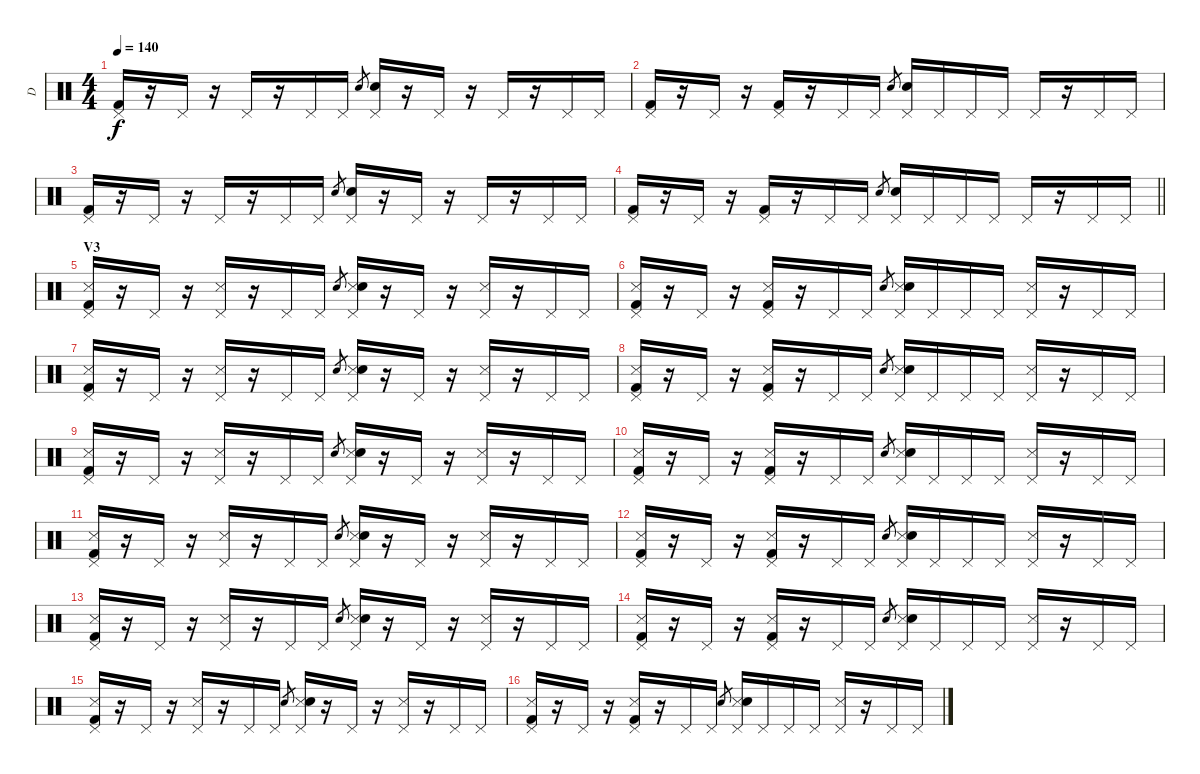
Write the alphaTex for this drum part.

\track ("D" "D") {instrument percussion}
\staff {score}
\articulation defaults
\ts (4 4)
\tempo 140
\clef neutral
\ks c
("Kick (hit) 2" "Pedal Hi-Hat (hit)").16{dy f} r.16 "Pedal Hi-Hat (hit)".16 r.16 "Pedal Hi-Hat (hit)".16 r.16 "Pedal Hi-Hat (hit)".16 "Pedal Hi-Hat (hit)".16 "Electric Snare (hit)".8{gr} ("Electric Snare (hit)" "Pedal Hi-Hat (hit)").16 r.16 "Pedal Hi-Hat (hit)".16 r.16 "Pedal Hi-Hat (hit)".16 r.16 "Pedal Hi-Hat (hit)".16 "Pedal Hi-Hat (hit)".16 |
("Kick (hit) 2" "Pedal Hi-Hat (hit)").16 r.16 "Pedal Hi-Hat (hit)".16 r.16 ("Kick (hit) 2" "Pedal Hi-Hat (hit)").16 r.16 "Pedal Hi-Hat (hit)".16 "Pedal Hi-Hat (hit)".16 "Electric Snare (hit)".8{gr} ("Electric Snare (hit)" "Pedal Hi-Hat (hit)").16 "Pedal Hi-Hat (hit)".16 "Pedal Hi-Hat (hit)".16 "Pedal Hi-Hat (hit)".16 "Pedal Hi-Hat (hit)".16 r.16 "Pedal Hi-Hat (hit)".16 "Pedal Hi-Hat (hit)".16 |
("Kick (hit) 2" "Pedal Hi-Hat (hit)").16 r.16 "Pedal Hi-Hat (hit)".16 r.16 "Pedal Hi-Hat (hit)".16 r.16 "Pedal Hi-Hat (hit)".16 "Pedal Hi-Hat (hit)".16 "Electric Snare (hit)".8{gr} ("Electric Snare (hit)" "Pedal Hi-Hat (hit)").16 r.16 "Pedal Hi-Hat (hit)".16 r.16 "Pedal Hi-Hat (hit)".16 r.16 "Pedal Hi-Hat (hit)".16 "Pedal Hi-Hat (hit)".16 |
\barLineRight lightlight
("Kick (hit) 2" "Pedal Hi-Hat (hit)").16 r.16 "Pedal Hi-Hat (hit)".16 r.16 ("Kick (hit) 2" "Pedal Hi-Hat (hit)").16 r.16 "Pedal Hi-Hat (hit)".16 "Pedal Hi-Hat (hit)".16 "Electric Snare (hit)".8{gr} ("Electric Snare (hit)" "Pedal Hi-Hat (hit)").16 "Pedal Hi-Hat (hit)".16 "Pedal Hi-Hat (hit)".16 "Pedal Hi-Hat (hit)".16 "Pedal Hi-Hat (hit)".16 r.16 "Pedal Hi-Hat (hit)".16 "Pedal Hi-Hat (hit)".16 |
\section ("" "V3")
("Metronome (hit)" "Kick (hit) 2" "Pedal Hi-Hat (hit)").16 r.16 "Pedal Hi-Hat (hit)".16 r.16 ("Metronome (hit)" "Pedal Hi-Hat (hit)").16 r.16 "Pedal Hi-Hat (hit)".16 "Pedal Hi-Hat (hit)".16 "Electric Snare (hit)".8{gr} ("Metronome (hit)" "Electric Snare (hit)" "Pedal Hi-Hat (hit)").16 r.16 "Pedal Hi-Hat (hit)".16 r.16 ("Metronome (hit)" "Pedal Hi-Hat (hit)").16 r.16 "Pedal Hi-Hat (hit)".16 "Pedal Hi-Hat (hit)".16 |
("Metronome (hit)" "Kick (hit) 2" "Pedal Hi-Hat (hit)").16 r.16 "Pedal Hi-Hat (hit)".16 r.16 ("Metronome (hit)" "Kick (hit) 2" "Pedal Hi-Hat (hit)").16 r.16 "Pedal Hi-Hat (hit)".16 "Pedal Hi-Hat (hit)".16 "Electric Snare (hit)".8{gr} ("Metronome (hit)" "Electric Snare (hit)" "Pedal Hi-Hat (hit)").16 "Pedal Hi-Hat (hit)".16 "Pedal Hi-Hat (hit)".16 "Pedal Hi-Hat (hit)".16 ("Metronome (hit)" "Pedal Hi-Hat (hit)").16 r.16 "Pedal Hi-Hat (hit)".16 "Pedal Hi-Hat (hit)".16 |
("Metronome (hit)" "Kick (hit) 2" "Pedal Hi-Hat (hit)").16 r.16 "Pedal Hi-Hat (hit)".16 r.16 ("Metronome (hit)" "Pedal Hi-Hat (hit)").16 r.16 "Pedal Hi-Hat (hit)".16 "Pedal Hi-Hat (hit)".16 "Electric Snare (hit)".8{gr} ("Metronome (hit)" "Electric Snare (hit)" "Pedal Hi-Hat (hit)").16 r.16 "Pedal Hi-Hat (hit)".16 r.16 ("Metronome (hit)" "Pedal Hi-Hat (hit)").16 r.16 "Pedal Hi-Hat (hit)".16 "Pedal Hi-Hat (hit)".16 |
("Metronome (hit)" "Kick (hit) 2" "Pedal Hi-Hat (hit)").16 r.16 "Pedal Hi-Hat (hit)".16 r.16 ("Metronome (hit)" "Kick (hit) 2" "Pedal Hi-Hat (hit)").16 r.16 "Pedal Hi-Hat (hit)".16 "Pedal Hi-Hat (hit)".16 "Electric Snare (hit)".8{gr} ("Metronome (hit)" "Electric Snare (hit)" "Pedal Hi-Hat (hit)").16 "Pedal Hi-Hat (hit)".16 "Pedal Hi-Hat (hit)".16 "Pedal Hi-Hat (hit)".16 ("Metronome (hit)" "Pedal Hi-Hat (hit)").16 r.16 "Pedal Hi-Hat (hit)".16 "Pedal Hi-Hat (hit)".16 |
("Metronome (hit)" "Kick (hit) 2" "Pedal Hi-Hat (hit)").16 r.16 "Pedal Hi-Hat (hit)".16 r.16 ("Metronome (hit)" "Pedal Hi-Hat (hit)").16 r.16 "Pedal Hi-Hat (hit)".16 "Pedal Hi-Hat (hit)".16 "Electric Snare (hit)".8{gr} ("Metronome (hit)" "Electric Snare (hit)" "Pedal Hi-Hat (hit)").16 r.16 "Pedal Hi-Hat (hit)".16 r.16 ("Metronome (hit)" "Pedal Hi-Hat (hit)").16 r.16 "Pedal Hi-Hat (hit)".16 "Pedal Hi-Hat (hit)".16 |
("Metronome (hit)" "Kick (hit) 2" "Pedal Hi-Hat (hit)").16 r.16 "Pedal Hi-Hat (hit)".16 r.16 ("Metronome (hit)" "Kick (hit) 2" "Pedal Hi-Hat (hit)").16 r.16 "Pedal Hi-Hat (hit)".16 "Pedal Hi-Hat (hit)".16 "Electric Snare (hit)".8{gr} ("Metronome (hit)" "Electric Snare (hit)" "Pedal Hi-Hat (hit)").16 "Pedal Hi-Hat (hit)".16 "Pedal Hi-Hat (hit)".16 "Pedal Hi-Hat (hit)".16 ("Metronome (hit)" "Pedal Hi-Hat (hit)").16 r.16 "Pedal Hi-Hat (hit)".16 "Pedal Hi-Hat (hit)".16 |
("Metronome (hit)" "Kick (hit) 2" "Pedal Hi-Hat (hit)").16 r.16 "Pedal Hi-Hat (hit)".16 r.16 ("Metronome (hit)" "Pedal Hi-Hat (hit)").16 r.16 "Pedal Hi-Hat (hit)".16 "Pedal Hi-Hat (hit)".16 "Electric Snare (hit)".8{gr} ("Metronome (hit)" "Electric Snare (hit)" "Pedal Hi-Hat (hit)").16 r.16 "Pedal Hi-Hat (hit)".16 r.16 ("Metronome (hit)" "Pedal Hi-Hat (hit)").16 r.16 "Pedal Hi-Hat (hit)".16 "Pedal Hi-Hat (hit)".16 |
("Metronome (hit)" "Kick (hit) 2" "Pedal Hi-Hat (hit)").16 r.16 "Pedal Hi-Hat (hit)".16 r.16 ("Metronome (hit)" "Kick (hit) 2" "Pedal Hi-Hat (hit)").16 r.16 "Pedal Hi-Hat (hit)".16 "Pedal Hi-Hat (hit)".16 "Electric Snare (hit)".8{gr} ("Metronome (hit)" "Electric Snare (hit)" "Pedal Hi-Hat (hit)").16 "Pedal Hi-Hat (hit)".16 "Pedal Hi-Hat (hit)".16 "Pedal Hi-Hat (hit)".16 ("Metronome (hit)" "Pedal Hi-Hat (hit)").16 r.16 "Pedal Hi-Hat (hit)".16 "Pedal Hi-Hat (hit)".16 |
("Metronome (hit)" "Kick (hit) 2" "Pedal Hi-Hat (hit)").16 r.16 "Pedal Hi-Hat (hit)".16 r.16 ("Metronome (hit)" "Pedal Hi-Hat (hit)").16 r.16 "Pedal Hi-Hat (hit)".16 "Pedal Hi-Hat (hit)".16 "Electric Snare (hit)".8{gr} ("Metronome (hit)" "Electric Snare (hit)" "Pedal Hi-Hat (hit)").16 r.16 "Pedal Hi-Hat (hit)".16 r.16 ("Metronome (hit)" "Pedal Hi-Hat (hit)").16 r.16 "Pedal Hi-Hat (hit)".16 "Pedal Hi-Hat (hit)".16 |
("Metronome (hit)" "Kick (hit) 2" "Pedal Hi-Hat (hit)").16 r.16 "Pedal Hi-Hat (hit)".16 r.16 ("Metronome (hit)" "Kick (hit) 2" "Pedal Hi-Hat (hit)").16 r.16 "Pedal Hi-Hat (hit)".16 "Pedal Hi-Hat (hit)".16 "Electric Snare (hit)".8{gr} ("Metronome (hit)" "Electric Snare (hit)" "Pedal Hi-Hat (hit)").16 "Pedal Hi-Hat (hit)".16 "Pedal Hi-Hat (hit)".16 "Pedal Hi-Hat (hit)".16 ("Metronome (hit)" "Pedal Hi-Hat (hit)").16 r.16 "Pedal Hi-Hat (hit)".16 "Pedal Hi-Hat (hit)".16 |
("Metronome (hit)" "Kick (hit) 2" "Pedal Hi-Hat (hit)").16 r.16 "Pedal Hi-Hat (hit)".16 r.16 ("Metronome (hit)" "Pedal Hi-Hat (hit)").16 r.16 "Pedal Hi-Hat (hit)".16 "Pedal Hi-Hat (hit)".16 "Electric Snare (hit)".8{gr} ("Metronome (hit)" "Electric Snare (hit)" "Pedal Hi-Hat (hit)").16 r.16 "Pedal Hi-Hat (hit)".16 r.16 ("Metronome (hit)" "Pedal Hi-Hat (hit)").16 r.16 "Pedal Hi-Hat (hit)".16 "Pedal Hi-Hat (hit)".16 |
("Metronome (hit)" "Kick (hit) 2" "Pedal Hi-Hat (hit)").16 r.16 "Pedal Hi-Hat (hit)".16 r.16 ("Metronome (hit)" "Kick (hit) 2" "Pedal Hi-Hat (hit)").16 r.16 "Pedal Hi-Hat (hit)".16 "Pedal Hi-Hat (hit)".16 "Electric Snare (hit)".8{gr} ("Metronome (hit)" "Electric Snare (hit)" "Pedal Hi-Hat (hit)").16 "Pedal Hi-Hat (hit)".16 "Pedal Hi-Hat (hit)".16 "Pedal Hi-Hat (hit)".16 ("Metronome (hit)" "Pedal Hi-Hat (hit)").16 r.16 "Pedal Hi-Hat (hit)".16 "Pedal Hi-Hat (hit)".16
